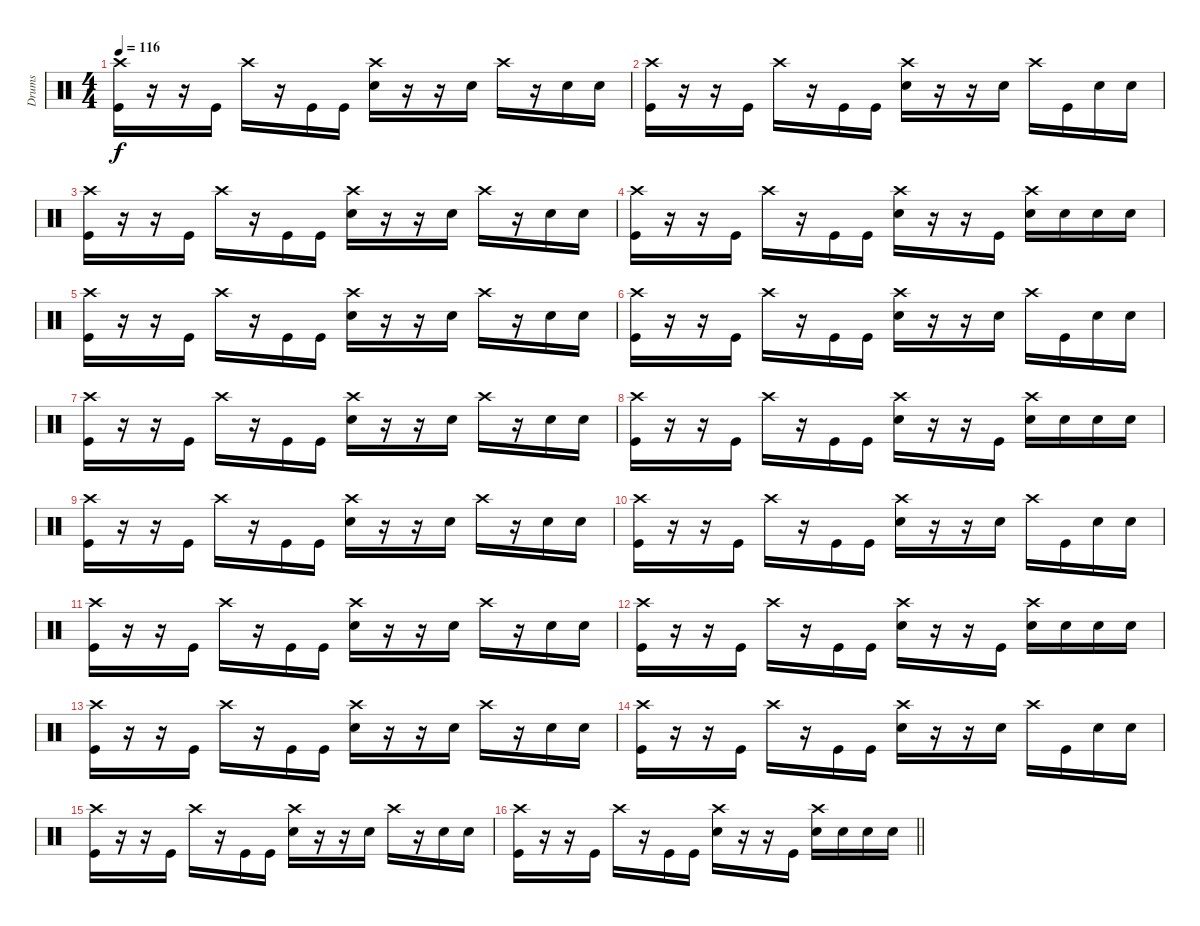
\track ("Drums" "Drums") {instrument percussion}
\staff {score}
\articulation defaults
\ts (4 4)
\tempo 116
\clef neutral
\ks c
("Crash high (hit)" "Kick (hit)").16{dy f} r.16 r.16 "Kick (hit)".16 "Crash high (hit)".16 r.16 "Kick (hit)".16 "Kick (hit)".16 ("Crash high (hit)" "Snare (hit) 2").16 r.16 r.16 "Snare (hit) 2".16 "Crash high (hit)".16 r.16 "Snare (hit) 2".16 "Snare (hit) 2".16 |
("Crash high (hit)" "Kick (hit)").16 r.16 r.16 "Kick (hit)".16 "Crash high (hit)".16 r.16 "Kick (hit)".16 "Kick (hit)".16 ("Crash high (hit)" "Snare (hit) 2").16 r.16 r.16 "Snare (hit) 2".16 "Crash high (hit)".16 "Kick (hit)".16 "Snare (hit) 2".16 "Snare (hit) 2".16 |
("Crash high (hit)" "Kick (hit)").16 r.16 r.16 "Kick (hit)".16 "Crash high (hit)".16 r.16 "Kick (hit)".16 "Kick (hit)".16 ("Crash high (hit)" "Snare (hit) 2").16 r.16 r.16 "Snare (hit) 2".16 "Crash high (hit)".16 r.16 "Snare (hit) 2".16 "Snare (hit) 2".16 |
("Crash high (hit)" "Kick (hit)").16 r.16 r.16 "Kick (hit)".16 "Crash high (hit)".16 r.16 "Kick (hit)".16 "Kick (hit)".16 ("Crash high (hit)" "Snare (hit) 2").16 r.16 r.16 "Kick (hit)".16 ("Crash high (hit)" "Snare (hit) 2").16 "Snare (hit) 2".16 "Snare (hit) 2".16 "Snare (hit) 2".16 |
("Crash high (hit)" "Kick (hit)").16 r.16 r.16 "Kick (hit)".16 "Crash high (hit)".16 r.16 "Kick (hit)".16 "Kick (hit)".16 ("Crash high (hit)" "Snare (hit) 2").16 r.16 r.16 "Snare (hit) 2".16 "Crash high (hit)".16 r.16 "Snare (hit) 2".16 "Snare (hit) 2".16 |
("Crash high (hit)" "Kick (hit)").16 r.16 r.16 "Kick (hit)".16 "Crash high (hit)".16 r.16 "Kick (hit)".16 "Kick (hit)".16 ("Crash high (hit)" "Snare (hit) 2").16 r.16 r.16 "Snare (hit) 2".16 "Crash high (hit)".16 "Kick (hit)".16 "Snare (hit) 2".16 "Snare (hit) 2".16 |
("Crash high (hit)" "Kick (hit)").16 r.16 r.16 "Kick (hit)".16 "Crash high (hit)".16 r.16 "Kick (hit)".16 "Kick (hit)".16 ("Crash high (hit)" "Snare (hit) 2").16 r.16 r.16 "Snare (hit) 2".16 "Crash high (hit)".16 r.16 "Snare (hit) 2".16 "Snare (hit) 2".16 |
("Crash high (hit)" "Kick (hit)").16 r.16 r.16 "Kick (hit)".16 "Crash high (hit)".16 r.16 "Kick (hit)".16 "Kick (hit)".16 ("Crash high (hit)" "Snare (hit) 2").16 r.16 r.16 "Kick (hit)".16 ("Crash high (hit)" "Snare (hit) 2").16 "Snare (hit) 2".16 "Snare (hit) 2".16 "Snare (hit) 2".16 |
("Crash high (hit)" "Kick (hit)").16 r.16 r.16 "Kick (hit)".16 "Crash high (hit)".16 r.16 "Kick (hit)".16 "Kick (hit)".16 ("Crash high (hit)" "Snare (hit) 2").16 r.16 r.16 "Snare (hit) 2".16 "Crash high (hit)".16 r.16 "Snare (hit) 2".16 "Snare (hit) 2".16 |
("Crash high (hit)" "Kick (hit)").16 r.16 r.16 "Kick (hit)".16 "Crash high (hit)".16 r.16 "Kick (hit)".16 "Kick (hit)".16 ("Crash high (hit)" "Snare (hit) 2").16 r.16 r.16 "Snare (hit) 2".16 "Crash high (hit)".16 "Kick (hit)".16 "Snare (hit) 2".16 "Snare (hit) 2".16 |
("Crash high (hit)" "Kick (hit)").16 r.16 r.16 "Kick (hit)".16 "Crash high (hit)".16 r.16 "Kick (hit)".16 "Kick (hit)".16 ("Crash high (hit)" "Snare (hit) 2").16 r.16 r.16 "Snare (hit) 2".16 "Crash high (hit)".16 r.16 "Snare (hit) 2".16 "Snare (hit) 2".16 |
("Crash high (hit)" "Kick (hit)").16 r.16 r.16 "Kick (hit)".16 "Crash high (hit)".16 r.16 "Kick (hit)".16 "Kick (hit)".16 ("Crash high (hit)" "Snare (hit) 2").16 r.16 r.16 "Kick (hit)".16 ("Crash high (hit)" "Snare (hit) 2").16 "Snare (hit) 2".16 "Snare (hit) 2".16 "Snare (hit) 2".16 |
("Crash high (hit)" "Kick (hit)").16 r.16 r.16 "Kick (hit)".16 "Crash high (hit)".16 r.16 "Kick (hit)".16 "Kick (hit)".16 ("Crash high (hit)" "Snare (hit) 2").16 r.16 r.16 "Snare (hit) 2".16 "Crash high (hit)".16 r.16 "Snare (hit) 2".16 "Snare (hit) 2".16 |
("Crash high (hit)" "Kick (hit)").16 r.16 r.16 "Kick (hit)".16 "Crash high (hit)".16 r.16 "Kick (hit)".16 "Kick (hit)".16 ("Crash high (hit)" "Snare (hit) 2").16 r.16 r.16 "Snare (hit) 2".16 "Crash high (hit)".16 "Kick (hit)".16 "Snare (hit) 2".16 "Snare (hit) 2".16 |
("Crash high (hit)" "Kick (hit)").16 r.16 r.16 "Kick (hit)".16 "Crash high (hit)".16 r.16 "Kick (hit)".16 "Kick (hit)".16 ("Crash high (hit)" "Snare (hit) 2").16 r.16 r.16 "Snare (hit) 2".16 "Crash high (hit)".16 r.16 "Snare (hit) 2".16 "Snare (hit) 2".16 |
\barLineRight lightlight
("Crash high (hit)" "Kick (hit)").16 r.16 r.16 "Kick (hit)".16 "Crash high (hit)".16 r.16 "Kick (hit)".16 "Kick (hit)".16 ("Crash high (hit)" "Snare (hit) 2").16 r.16 r.16 "Kick (hit)".16 ("Crash high (hit)" "Snare (hit) 2").16 "Snare (hit) 2".16 "Snare (hit) 2".16 "Snare (hit) 2".16
